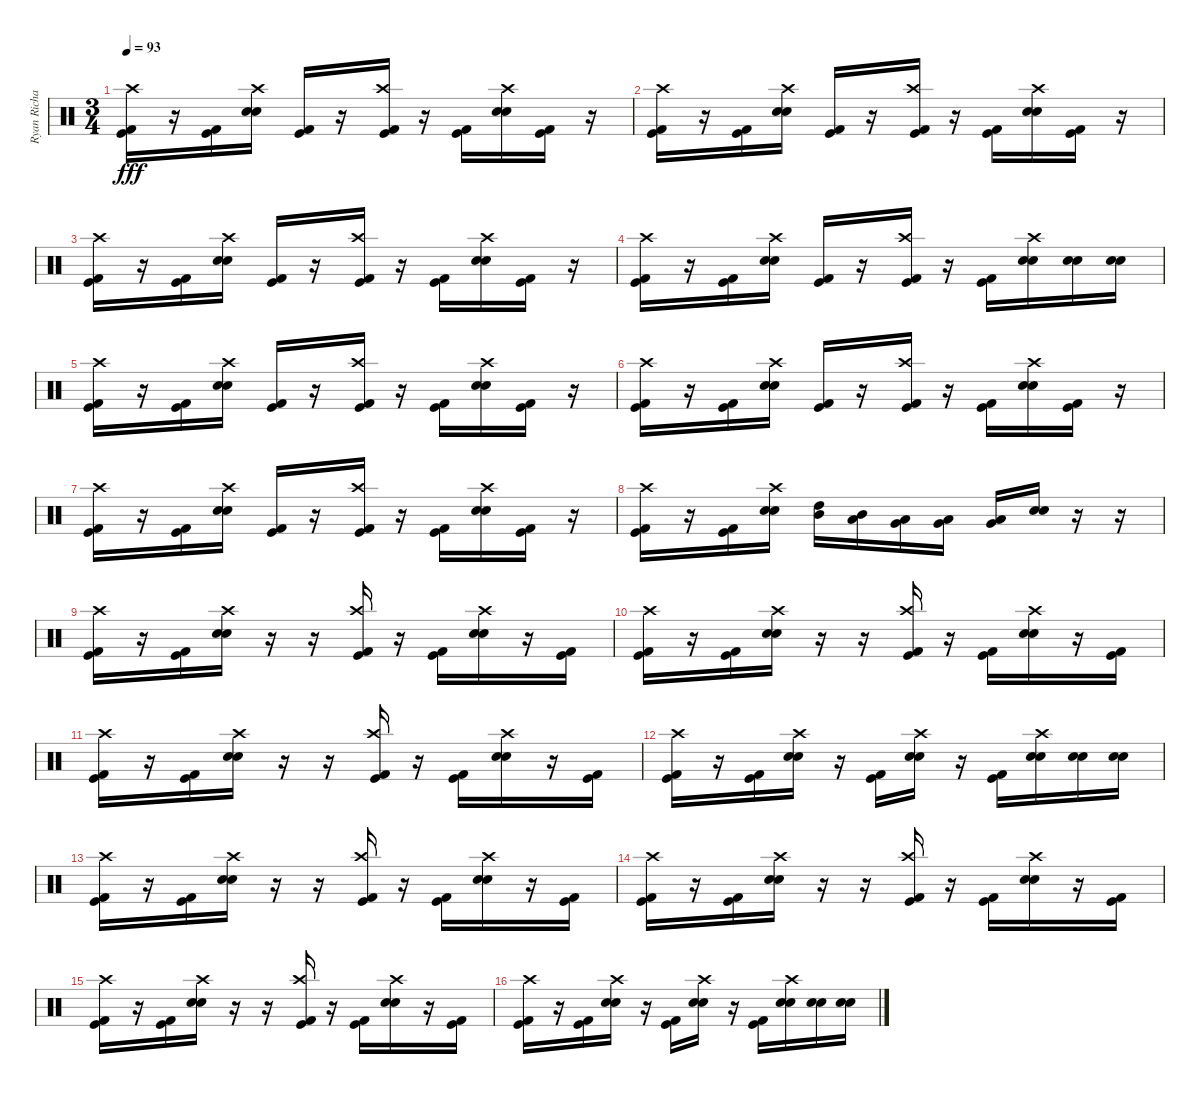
\track ("Ryan Richards" "Ryan Richa") {instrument percussion}
\staff {score}
\articulation defaults
\ts (3 4)
\tempo 93
\clef neutral
\ks c
("Kick (hit)" "Crash high (hit)" "Kick (hit) 2").16{dy fff} r.16 ("Kick (hit)" "Kick (hit) 2").16 ("Snare (hit) 2" "Crash high (hit)" "Electric Snare (hit)").16 ("Kick (hit)" "Kick (hit) 2").16 r.16 ("Kick (hit)" "Crash high (hit)" "Kick (hit) 2").16 r.16 ("Kick (hit)" "Kick (hit) 2").16 ("Snare (hit) 2" "Crash high (hit)" "Electric Snare (hit)").16 ("Kick (hit)" "Kick (hit) 2").16 r.16 |
("Kick (hit)" "Crash high (hit)" "Kick (hit) 2").16 r.16 ("Kick (hit)" "Kick (hit) 2").16 ("Snare (hit) 2" "Crash high (hit)" "Electric Snare (hit)").16 ("Kick (hit)" "Kick (hit) 2").16 r.16 ("Kick (hit)" "Crash high (hit)" "Kick (hit) 2").16 r.16 ("Kick (hit)" "Kick (hit) 2").16 ("Snare (hit) 2" "Crash high (hit)" "Electric Snare (hit)").16 ("Kick (hit)" "Kick (hit) 2").16 r.16 |
("Kick (hit)" "Crash high (hit)" "Kick (hit) 2").16{volume 16} r.16 ("Kick (hit)" "Kick (hit) 2").16 ("Snare (hit) 2" "Crash high (hit)" "Electric Snare (hit)").16 ("Kick (hit)" "Kick (hit) 2").16 r.16 ("Kick (hit)" "Crash high (hit)" "Kick (hit) 2").16 r.16 ("Kick (hit)" "Kick (hit) 2").16 ("Snare (hit) 2" "Crash high (hit)" "Electric Snare (hit)").16 ("Kick (hit)" "Kick (hit) 2").16 r.16 |
("Kick (hit)" "Crash high (hit)" "Kick (hit) 2").16{volume 16} r.16 ("Kick (hit)" "Kick (hit) 2").16 ("Snare (hit) 2" "Crash high (hit)" "Electric Snare (hit)").16 ("Kick (hit)" "Kick (hit) 2").16 r.16 ("Kick (hit)" "Crash high (hit)" "Kick (hit) 2").16 r.16 ("Kick (hit)" "Kick (hit) 2").16 ("Snare (hit) 2" "Crash high (hit)" "Electric Snare (hit)").16 ("Snare (hit) 2" "Electric Snare (hit)").16 ("Snare (hit) 2" "Electric Snare (hit)").16 |
("Kick (hit)" "Crash high (hit)" "Kick (hit) 2").16{volume 16} r.16 ("Kick (hit)" "Kick (hit) 2").16 ("Snare (hit) 2" "Crash high (hit)" "Electric Snare (hit)").16 ("Kick (hit)" "Kick (hit) 2").16 r.16 ("Kick (hit)" "Crash high (hit)" "Kick (hit) 2").16 r.16 ("Kick (hit)" "Kick (hit) 2").16 ("Snare (hit) 2" "Crash high (hit)" "Electric Snare (hit)").16 ("Kick (hit)" "Kick (hit) 2").16 r.16 |
("Kick (hit)" "Crash high (hit)" "Kick (hit) 2").16{volume 16} r.16 ("Kick (hit)" "Kick (hit) 2").16 ("Snare (hit) 2" "Crash high (hit)" "Electric Snare (hit)").16 ("Kick (hit)" "Kick (hit) 2").16 r.16 ("Kick (hit)" "Crash high (hit)" "Kick (hit) 2").16 r.16 ("Kick (hit)" "Kick (hit) 2").16 ("Snare (hit) 2" "Crash high (hit)" "Electric Snare (hit)").16 ("Kick (hit)" "Kick (hit) 2").16 r.16 |
("Kick (hit)" "Crash high (hit)" "Kick (hit) 2").16{volume 16} r.16 ("Kick (hit)" "Kick (hit) 2").16 ("Snare (hit) 2" "Crash high (hit)" "Electric Snare (hit)").16 ("Kick (hit)" "Kick (hit) 2").16 r.16 ("Kick (hit)" "Crash high (hit)" "Kick (hit) 2").16 r.16 ("Kick (hit)" "Kick (hit) 2").16 ("Snare (hit) 2" "Crash high (hit)" "Electric Snare (hit)").16 ("Kick (hit)" "Kick (hit) 2").16 r.16 |
("Kick (hit)" "Crash high (hit)" "Kick (hit) 2").16{volume 16} r.16 ("Kick (hit)" "Kick (hit) 2").16 ("Snare (hit) 2" "Crash high (hit)" "Electric Snare (hit)").16 ("High Tom (hit)" "Mid Tom (hit)").16 ("Mid Tom (hit)" "Low Tom (hit)").16 ("Low Tom (hit)" "Very Low Tom (hit)").16 ("Very Low Tom (hit)" "Low Floor Tom (hit)").16 ("Low Floor Tom (hit)" "Very Low Tom (hit)").16 ("Snare (hit) 2" "Electric Snare (hit)").16 r.16 r.16 |
("Kick (hit)" "Crash high (hit)" "Kick (hit) 2").16 r.16 ("Kick (hit)" "Kick (hit) 2").16 ("Snare (hit) 2" "Crash high (hit)" "Electric Snare (hit)").16 r.16 r.16 ("Kick (hit)" "Crash high (hit)" "Kick (hit) 2").16 r.16 ("Kick (hit)" "Kick (hit) 2").16 ("Snare (hit) 2" "Crash high (hit)" "Electric Snare (hit)").16 r.16 ("Kick (hit)" "Kick (hit) 2").16 |
("Kick (hit)" "Crash high (hit)" "Kick (hit) 2").16 r.16 ("Kick (hit)" "Kick (hit) 2").16 ("Snare (hit) 2" "Crash high (hit)" "Electric Snare (hit)").16 r.16 r.16 ("Kick (hit)" "Crash high (hit)" "Kick (hit) 2").16 r.16 ("Kick (hit)" "Kick (hit) 2").16 ("Snare (hit) 2" "Crash high (hit)" "Electric Snare (hit)").16 r.16 ("Kick (hit)" "Kick (hit) 2").16 |
("Kick (hit)" "Crash high (hit)" "Kick (hit) 2").16 r.16 ("Kick (hit)" "Kick (hit) 2").16 ("Snare (hit) 2" "Crash high (hit)" "Electric Snare (hit)").16 r.16 r.16 ("Kick (hit)" "Crash high (hit)" "Kick (hit) 2").16 r.16 ("Kick (hit)" "Kick (hit) 2").16 ("Snare (hit) 2" "Crash high (hit)" "Electric Snare (hit)").16 r.16 ("Kick (hit)" "Kick (hit) 2").16 |
("Kick (hit)" "Crash high (hit)" "Kick (hit) 2").16 r.16 ("Kick (hit)" "Kick (hit) 2").16 ("Snare (hit) 2" "Crash high (hit)" "Electric Snare (hit)").16 r.16 ("Kick (hit)" "Kick (hit) 2").16 ("Snare (hit) 2" "Crash high (hit)" "Electric Snare (hit)").16 r.16 ("Kick (hit)" "Kick (hit) 2").16 ("Snare (hit) 2" "Crash high (hit)" "Electric Snare (hit)").16 ("Snare (hit) 2" "Electric Snare (hit)").16 ("Snare (hit) 2" "Electric Snare (hit)").16 |
("Kick (hit)" "Crash high (hit)" "Kick (hit) 2").16 r.16 ("Kick (hit)" "Kick (hit) 2").16 ("Snare (hit) 2" "Crash high (hit)" "Electric Snare (hit)").16 r.16 r.16 ("Kick (hit)" "Crash high (hit)" "Kick (hit) 2").16 r.16 ("Kick (hit)" "Kick (hit) 2").16 ("Snare (hit) 2" "Crash high (hit)" "Electric Snare (hit)").16 r.16 ("Kick (hit)" "Kick (hit) 2").16 |
("Kick (hit)" "Crash high (hit)" "Kick (hit) 2").16 r.16 ("Kick (hit)" "Kick (hit) 2").16 ("Snare (hit) 2" "Crash high (hit)" "Electric Snare (hit)").16 r.16 r.16 ("Kick (hit)" "Crash high (hit)" "Kick (hit) 2").16 r.16 ("Kick (hit)" "Kick (hit) 2").16 ("Snare (hit) 2" "Crash high (hit)" "Electric Snare (hit)").16 r.16 ("Kick (hit)" "Kick (hit) 2").16 |
("Kick (hit)" "Crash high (hit)" "Kick (hit) 2").16 r.16 ("Kick (hit)" "Kick (hit) 2").16 ("Snare (hit) 2" "Crash high (hit)" "Electric Snare (hit)").16 r.16 r.16 ("Kick (hit)" "Crash high (hit)" "Kick (hit) 2").16 r.16 ("Kick (hit)" "Kick (hit) 2").16 ("Snare (hit) 2" "Crash high (hit)" "Electric Snare (hit)").16 r.16 ("Kick (hit)" "Kick (hit) 2").16 |
("Kick (hit)" "Crash high (hit)" "Kick (hit) 2").16 r.16 ("Kick (hit)" "Kick (hit) 2").16 ("Snare (hit) 2" "Crash high (hit)" "Electric Snare (hit)").16 r.16 ("Kick (hit)" "Kick (hit) 2").16 ("Snare (hit) 2" "Crash high (hit)" "Electric Snare (hit)").16 r.16 ("Kick (hit)" "Kick (hit) 2").16 ("Snare (hit) 2" "Crash high (hit)" "Electric Snare (hit)").16 ("Snare (hit) 2" "Electric Snare (hit)").16 ("Snare (hit) 2" "Electric Snare (hit)").16
